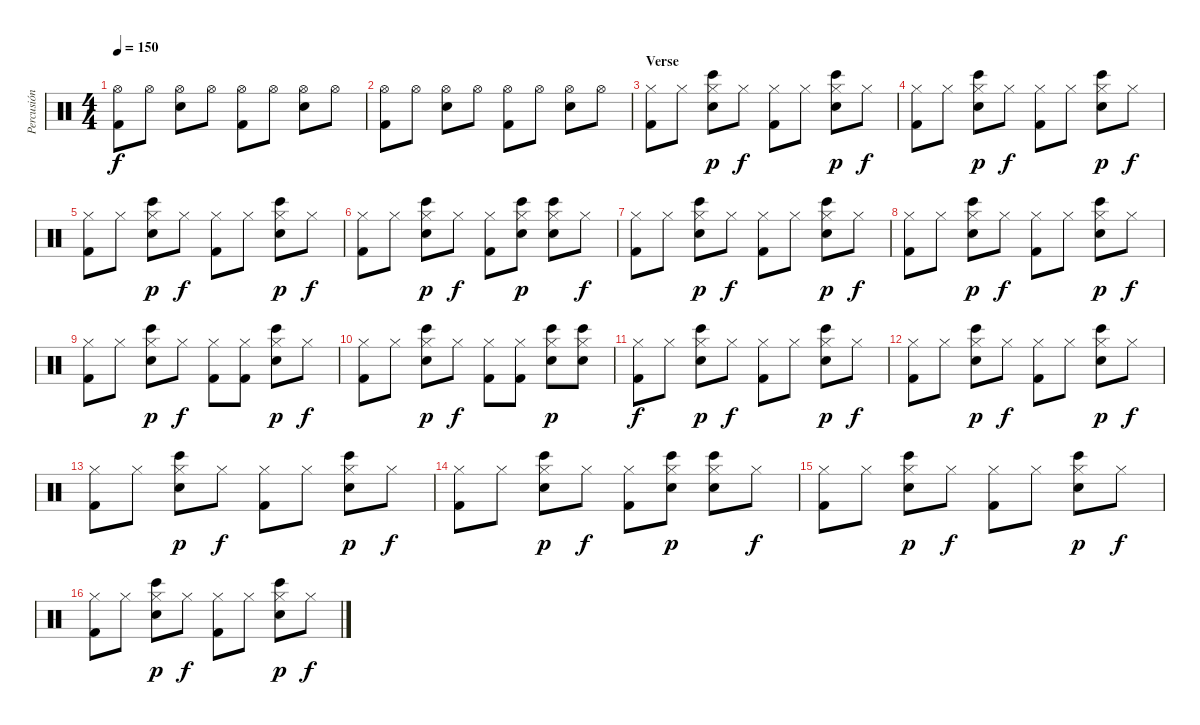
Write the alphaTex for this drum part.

\track ("Percusión" "Percusión") {instrument percussion}
\staff {score}
\articulation defaults
\ts (4 4)
\tempo 150
\clef neutral
\ks c
("Kick (hit) 2" "Hi-Hat (open)").8{dy f} "Hi-Hat (open)".8 ("Snare (hit) 2" "Hi-Hat (open)").8 "Hi-Hat (open)".8 ("Kick (hit) 2" "Hi-Hat (open)").8 "Hi-Hat (open)".8 ("Snare (hit) 2" "Hi-Hat (open)").8 "Hi-Hat (open)".8 |
("Kick (hit) 2" "Hi-Hat (open)").8 "Hi-Hat (open)".8 ("Snare (hit) 2" "Hi-Hat (open)").8 "Hi-Hat (open)".8 ("Kick (hit) 2" "Hi-Hat (open)").8 "Hi-Hat (open)".8 ("Snare (hit) 2" "Hi-Hat (open)").8 "Hi-Hat (open)".8 |
\section ("" "Verse")
("Hi-Hat (closed)" "Kick (hit) 2").8 "Hi-Hat (closed)".8 ("Hi-Hat (closed)" "Bongo High (hit)" "Snare (hit) 2").8{dy p} "Hi-Hat (closed)".8{dy f} ("Hi-Hat (closed)" "Kick (hit) 2").8 "Hi-Hat (closed)".8 ("Hi-Hat (closed)" "Bongo High (hit)" "Snare (hit) 2").8{dy p} "Hi-Hat (closed)".8{dy f} |
("Hi-Hat (closed)" "Kick (hit) 2").8 "Hi-Hat (closed)".8 ("Hi-Hat (closed)" "Bongo High (hit)" "Snare (hit) 2").8{dy p} "Hi-Hat (closed)".8{dy f} ("Hi-Hat (closed)" "Kick (hit) 2").8 "Hi-Hat (closed)".8 ("Hi-Hat (closed)" "Bongo High (hit)" "Snare (hit) 2").8{dy p} "Hi-Hat (closed)".8{dy f} |
("Hi-Hat (closed)" "Kick (hit) 2").8 "Hi-Hat (closed)".8 ("Hi-Hat (closed)" "Bongo High (hit)" "Snare (hit) 2").8{dy p} "Hi-Hat (closed)".8{dy f} ("Hi-Hat (closed)" "Kick (hit) 2").8 "Hi-Hat (closed)".8 ("Hi-Hat (closed)" "Bongo High (hit)" "Snare (hit) 2").8{dy p} "Hi-Hat (closed)".8{dy f} |
("Hi-Hat (closed)" "Kick (hit) 2").8 "Hi-Hat (closed)".8 ("Hi-Hat (closed)" "Bongo High (hit)" "Snare (hit) 2").8{dy p} "Hi-Hat (closed)".8{dy f} ("Hi-Hat (closed)" "Kick (hit) 2").8 ("Hi-Hat (closed)" "Bongo High (hit)" "Snare (hit) 2").8{dy p} ("Hi-Hat (closed)" "Bongo High (hit)" "Snare (hit) 2").8 "Hi-Hat (closed)".8{dy f} |
("Hi-Hat (closed)" "Kick (hit) 2").8 "Hi-Hat (closed)".8 ("Hi-Hat (closed)" "Bongo High (hit)" "Snare (hit) 2").8{dy p} "Hi-Hat (closed)".8{dy f} ("Hi-Hat (closed)" "Kick (hit) 2").8 "Hi-Hat (closed)".8 ("Hi-Hat (closed)" "Bongo High (hit)" "Snare (hit) 2").8{dy p} "Hi-Hat (closed)".8{dy f} |
("Hi-Hat (closed)" "Kick (hit) 2").8 "Hi-Hat (closed)".8 ("Hi-Hat (closed)" "Bongo High (hit)" "Snare (hit) 2").8{dy p} "Hi-Hat (closed)".8{dy f} ("Hi-Hat (closed)" "Kick (hit) 2").8 "Hi-Hat (closed)".8 ("Hi-Hat (closed)" "Bongo High (hit)" "Snare (hit) 2").8{dy p} "Hi-Hat (closed)".8{dy f} |
("Hi-Hat (closed)" "Kick (hit) 2").8 "Hi-Hat (closed)".8 ("Hi-Hat (closed)" "Bongo High (hit)" "Snare (hit) 2").8{dy p} "Hi-Hat (closed)".8{dy f} ("Hi-Hat (closed)" "Kick (hit) 2").8 ("Hi-Hat (closed)" "Kick (hit) 2").8 ("Hi-Hat (closed)" "Bongo High (hit)" "Snare (hit) 2").8{dy p} "Hi-Hat (closed)".8{dy f} |
("Hi-Hat (closed)" "Kick (hit) 2").8 "Hi-Hat (closed)".8 ("Hi-Hat (closed)" "Bongo High (hit)" "Snare (hit) 2").8{dy p} "Hi-Hat (closed)".8{dy f} ("Hi-Hat (closed)" "Kick (hit) 2").8 ("Hi-Hat (closed)" "Kick (hit) 2").8 ("Hi-Hat (closed)" "Bongo High (hit)" "Snare (hit) 2").8{dy p} ("Hi-Hat (closed)" "Bongo High (hit)" "Snare (hit) 2").8 |
("Hi-Hat (closed)" "Kick (hit) 2").8{dy f} "Hi-Hat (closed)".8 ("Hi-Hat (closed)" "Bongo High (hit)" "Snare (hit) 2").8{dy p} "Hi-Hat (closed)".8{dy f} ("Hi-Hat (closed)" "Kick (hit) 2").8 "Hi-Hat (closed)".8 ("Hi-Hat (closed)" "Bongo High (hit)" "Snare (hit) 2").8{dy p} "Hi-Hat (closed)".8{dy f} |
("Hi-Hat (closed)" "Kick (hit) 2").8 "Hi-Hat (closed)".8 ("Hi-Hat (closed)" "Bongo High (hit)" "Snare (hit) 2").8{dy p} "Hi-Hat (closed)".8{dy f} ("Hi-Hat (closed)" "Kick (hit) 2").8 "Hi-Hat (closed)".8 ("Hi-Hat (closed)" "Bongo High (hit)" "Snare (hit) 2").8{dy p} "Hi-Hat (closed)".8{dy f} |
("Hi-Hat (closed)" "Kick (hit) 2").8 "Hi-Hat (closed)".8 ("Hi-Hat (closed)" "Bongo High (hit)" "Snare (hit) 2").8{dy p} "Hi-Hat (closed)".8{dy f} ("Hi-Hat (closed)" "Kick (hit) 2").8 "Hi-Hat (closed)".8 ("Hi-Hat (closed)" "Bongo High (hit)" "Snare (hit) 2").8{dy p} "Hi-Hat (closed)".8{dy f} |
("Hi-Hat (closed)" "Kick (hit) 2").8 "Hi-Hat (closed)".8 ("Hi-Hat (closed)" "Bongo High (hit)" "Snare (hit) 2").8{dy p} "Hi-Hat (closed)".8{dy f} ("Hi-Hat (closed)" "Kick (hit) 2").8 ("Hi-Hat (closed)" "Bongo High (hit)" "Snare (hit) 2").8{dy p} ("Hi-Hat (closed)" "Bongo High (hit)" "Snare (hit) 2").8 "Hi-Hat (closed)".8{dy f} |
("Hi-Hat (closed)" "Kick (hit) 2").8 "Hi-Hat (closed)".8 ("Hi-Hat (closed)" "Bongo High (hit)" "Snare (hit) 2").8{dy p} "Hi-Hat (closed)".8{dy f} ("Hi-Hat (closed)" "Kick (hit) 2").8 "Hi-Hat (closed)".8 ("Hi-Hat (closed)" "Bongo High (hit)" "Snare (hit) 2").8{dy p} "Hi-Hat (closed)".8{dy f} |
("Hi-Hat (closed)" "Kick (hit) 2").8 "Hi-Hat (closed)".8 ("Hi-Hat (closed)" "Bongo High (hit)" "Snare (hit) 2").8{dy p} "Hi-Hat (closed)".8{dy f} ("Hi-Hat (closed)" "Kick (hit) 2").8 "Hi-Hat (closed)".8 ("Hi-Hat (closed)" "Bongo High (hit)" "Snare (hit) 2").8{dy p} "Hi-Hat (closed)".8{dy f}
